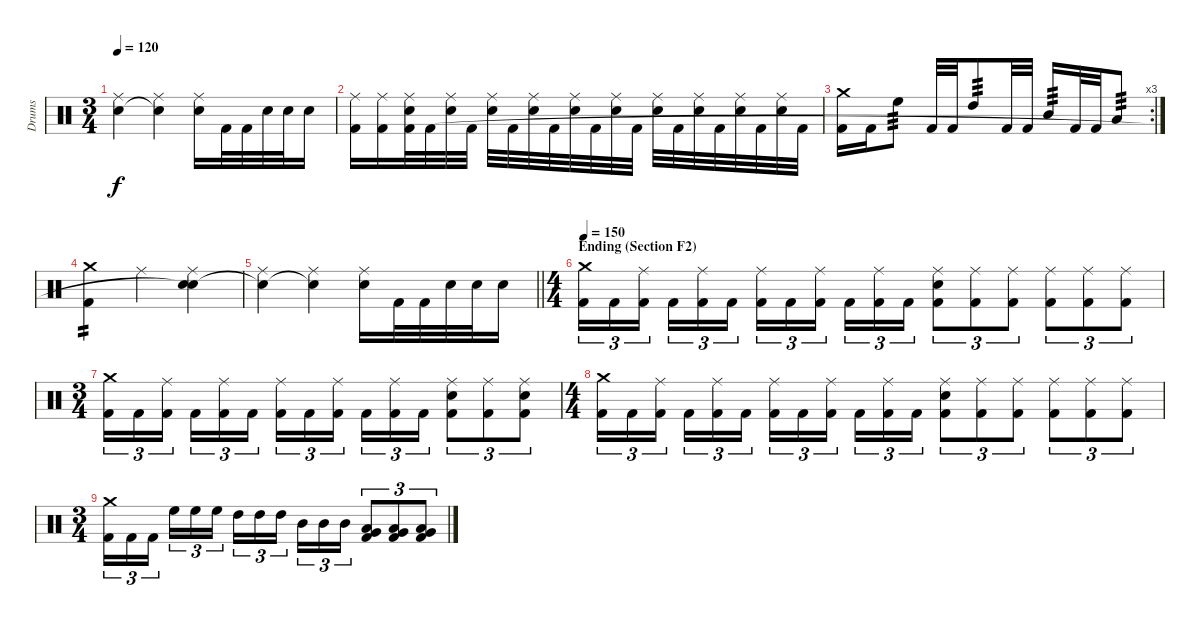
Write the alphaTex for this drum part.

\track ("Drums" "Drums") {instrument percussion}
\staff {score}
\articulation defaults
\ts (3 4)
\tempo 120
\clef neutral
\ks c
("Ride (middle)" "Snare (hit)"{t}).4{dy f} ("Ride (middle)" "Snare (hit)"{t}).4 ("Ride (middle)" "Snare (hit) 2").16 "Kick (hit) 2".32 "Kick (hit) 2".32 "Snare (hit) 2".32 "Snare (hit) 2".32 "Snare (hit) 2".16 |
("Ride (middle)" "Kick (hit) 2").16 ("Ride (middle)" "Kick (hit) 2").16 ("Ride (middle)" "Snare (hit) 2" "Kick (hit) 2").32 "Kick (hit) 2".32 ("Ride (middle)" "Snare (hit) 2").32 "Kick (hit) 2".32 ("Ride (middle)" "Snare (hit) 2").32 "Kick (hit) 2".32 ("Ride (middle)" "Snare (hit) 2").32 "Kick (hit) 2".32 ("Ride (middle)" "Snare (hit) 2").32 "Kick (hit) 2".32 ("Ride (middle)" "Snare (hit) 2").32 "Kick (hit) 2".32 ("Ride (middle)" "Snare (hit) 2").32 "Kick (hit) 2".32 ("Ride (middle)" "Snare (hit) 2").32 "Kick (hit) 2".32 ("Ride (middle)" "Snare (hit) 2").32 "Kick (hit) 2".32 ("Ride (middle)" "Snare (hit) 2").32 "Kick (hit) 2".32 |
\rc 3
("Crash medium (hit)" "Kick (hit) 2").16 "Kick (hit) 2".16 "High Floor Tom (hit)".8{tp 3} "Kick (hit) 2".32 "Kick (hit) 2".32 "High Tom (hit)".8{tp 3} "Kick (hit) 2".32 "Kick (hit) 2".32 "Mid Tom (hit)".16{tp 3} "Kick (hit) 2".32 "Kick (hit) 2".32 "Low Tom (hit)".8{tp 3} |
("Crash medium (hit)" "Kick (hit) 2").4{tp 2} "Ride (middle)".4 ("Ride (middle)" "Snare (hit) 2" "Snare (hit)"{t}).4 |
\barLineRight lightlight
("Ride (middle)" "Snare (hit)"{t}).4 ("Ride (middle)" "Snare (hit)"{t}).4 ("Ride (middle)" "Snare (hit) 2").16 "Kick (hit) 2".32 "Kick (hit) 2".32 "Snare (hit) 2".32 "Snare (hit) 2".32 "Snare (hit) 2".16 |
\ts (4 4)
\section ("" "Ending (Section F2)")
\tempo 150
("Crash medium (hit)" "Kick (hit) 2").16{tu (3 2)} "Kick (hit) 2".16{tu (3 2)} ("Ride (middle)" "Kick (hit) 2").16{tu (3 2) beam splitsecondary} "Kick (hit) 2".16{tu (3 2)} ("Ride (middle)" "Kick (hit) 2").16{tu (3 2)} "Kick (hit) 2".16{tu (3 2)} ("Ride (middle)" "Kick (hit) 2").16{tu (3 2)} "Kick (hit) 2".16{tu (3 2)} ("Ride (middle)" "Kick (hit) 2").16{tu (3 2) beam splitsecondary} "Kick (hit) 2".16{tu (3 2)} ("Ride (middle)" "Kick (hit) 2").16{tu (3 2)} "Kick (hit) 2".16{tu (3 2)} ("Ride (middle)" "Electric Snare (hit)" "Kick (hit) 2").8{tu (3 2)} ("Ride (middle)" "Kick (hit) 2").8{tu (3 2)} ("Ride (middle)" "Kick (hit) 2").8{tu (3 2)} ("Ride (middle)" "Kick (hit) 2").8{tu (3 2)} ("Ride (middle)" "Kick (hit) 2").8{tu (3 2)} ("Ride (middle)" "Kick (hit) 2").8{tu (3 2)} |
\ts (3 4)
("Crash medium (hit)" "Kick (hit) 2").16{tu (3 2)} "Kick (hit) 2".16{tu (3 2)} ("Ride (middle)" "Kick (hit) 2").16{tu (3 2) beam splitsecondary} "Kick (hit) 2".16{tu (3 2)} ("Ride (middle)" "Kick (hit) 2").16{tu (3 2)} "Kick (hit) 2".16{tu (3 2)} ("Ride (middle)" "Kick (hit) 2").16{tu (3 2)} "Kick (hit) 2".16{tu (3 2)} ("Ride (middle)" "Kick (hit) 2").16{tu (3 2) beam splitsecondary} "Kick (hit) 2".16{tu (3 2)} ("Ride (middle)" "Kick (hit) 2").16{tu (3 2)} "Kick (hit) 2".16{tu (3 2)} ("Ride (middle)" "Electric Snare (hit)" "Kick (hit) 2").8{tu (3 2)} ("Ride (middle)" "Kick (hit) 2").8{tu (3 2)} ("Ride (middle)" "Electric Snare (hit)" "Kick (hit) 2").8{tu (3 2)} |
\ts (4 4)
("Crash medium (hit)" "Kick (hit) 2").16{tu (3 2)} "Kick (hit) 2".16{tu (3 2)} ("Ride (middle)" "Kick (hit) 2").16{tu (3 2) beam splitsecondary} "Kick (hit) 2".16{tu (3 2)} ("Ride (middle)" "Kick (hit) 2").16{tu (3 2)} "Kick (hit) 2".16{tu (3 2)} ("Ride (middle)" "Kick (hit) 2").16{tu (3 2)} "Kick (hit) 2".16{tu (3 2)} ("Ride (middle)" "Kick (hit) 2").16{tu (3 2) beam splitsecondary} "Kick (hit) 2".16{tu (3 2)} ("Ride (middle)" "Kick (hit) 2").16{tu (3 2)} "Kick (hit) 2".16{tu (3 2)} ("Ride (middle)" "Electric Snare (hit)" "Kick (hit) 2").8{tu (3 2)} ("Ride (middle)" "Kick (hit) 2").8{tu (3 2)} ("Ride (middle)" "Kick (hit) 2").8{tu (3 2)} ("Ride (middle)" "Kick (hit) 2").8{tu (3 2)} ("Ride (middle)" "Kick (hit) 2").8{tu (3 2)} ("Ride (middle)" "Kick (hit) 2").8{tu (3 2)} |
\ts (3 4)
("Crash medium (hit)" "Kick (hit) 2").16{tu (3 2)} "Kick (hit) 2".16{tu (3 2)} "Kick (hit) 2".16{tu (3 2) beam splitsecondary} "High Floor Tom (hit)".16{tu (3 2)} "High Floor Tom (hit)".16{tu (3 2)} "High Floor Tom (hit)".16{tu (3 2)} "High Tom (hit)".16{tu (3 2)} "High Tom (hit)".16{tu (3 2)} "High Tom (hit)".16{tu (3 2) beam splitsecondary} "Mid Tom (hit)".16{tu (3 2)} "Mid Tom (hit)".16{tu (3 2)} "Mid Tom (hit)".16{tu (3 2)} ("Low Tom (hit)" "Very Low Tom (hit)" "Kick (hit) 2").8{tu (3 2)} ("Low Tom (hit)" "Very Low Tom (hit)" "Kick (hit) 2").8{tu (3 2)} ("Low Tom (hit)" "Very Low Tom (hit)" "Kick (hit) 2").8{tu (3 2)}
